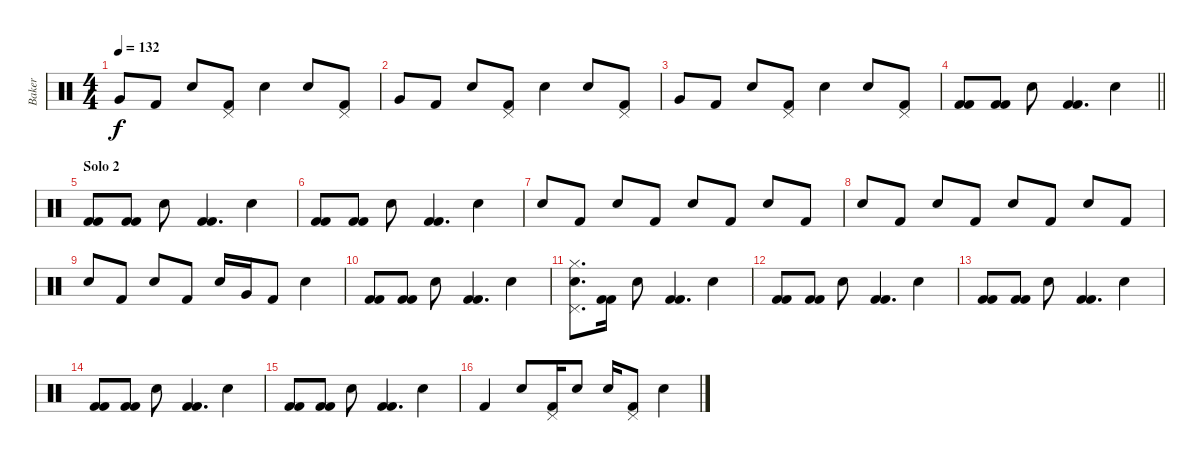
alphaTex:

\track ("Baker" "Baker") {instrument percussion}
\staff {score}
\articulation defaults
\ts (4 4)
\tempo 132
\clef neutral
\ks c "Very Low Tom (hit)".8{dy f} "Kick (hit) 2".8 "Snare (hit) 2".8
("Pedal Hi-Hat (hit)" "Kick (hit) 2").8 "Snare (hit) 2".4 "Snare (hit) 2".8 ("Pedal Hi-Hat (hit)" "Kick (hit) 2").8 |
"Very Low Tom (hit)".8 "Kick (hit) 2".8 "Snare (hit) 2".8 ("Pedal Hi-Hat (hit)" "Kick (hit) 2").8 "Snare (hit) 2".4 "Snare (hit) 2".8 ("Pedal Hi-Hat (hit)" "Kick (hit) 2").8 |
"Very Low Tom (hit)".8 "Kick (hit) 2".8 "Snare (hit) 2".8 ("Pedal Hi-Hat (hit)" "Kick (hit) 2").8 "Snare (hit) 2".4 "Snare (hit) 2".8 ("Pedal Hi-Hat (hit)" "Kick (hit) 2").8 |
\barLineRight lightlight
("Kick (hit) 2" "Kick (hit) 2").8 ("Kick (hit) 2" "Kick (hit) 2").8 "Snare (hit) 2".8 ("Kick (hit) 2" "Kick (hit) 2").4{d} "Snare (hit) 2".4 |
\section ("" "Solo 2")
("Kick (hit) 2" "Kick (hit) 2").8 ("Kick (hit) 2" "Kick (hit) 2").8 "Snare (hit) 2".8 ("Kick (hit) 2" "Kick (hit) 2").4{d} "Snare (hit) 2".4 |
("Kick (hit) 2" "Kick (hit) 2").8 ("Kick (hit) 2" "Kick (hit) 2").8 "Snare (hit) 2".8 ("Kick (hit) 2" "Kick (hit) 2").4{d} "Snare (hit) 2".4 |
"Snare (hit) 2".8 "Kick (hit) 2".8 "Snare (hit) 2".8 "Kick (hit) 2".8 "Snare (hit) 2".8 "Kick (hit) 2".8 "Snare (hit) 2".8 "Kick (hit) 2".8 |
"Snare (hit) 2".8 "Kick (hit) 2".8 "Snare (hit) 2".8 "Kick (hit) 2".8 "Snare (hit) 2".8 "Kick (hit) 2".8 "Snare (hit) 2".8 "Kick (hit) 2".8 |
"Snare (hit) 2".8 "Kick (hit) 2".8 "Snare (hit) 2".8 "Kick (hit) 2".8 "Electric Snare (hit)".16 "Very Low Tom (hit)".16 "Kick (hit) 2".8 "Snare (hit) 2".4 |
("Kick (hit) 2" "Kick (hit) 2").8 ("Kick (hit) 2" "Kick (hit) 2").8 "Snare (hit) 2".8 ("Kick (hit) 2" "Kick (hit) 2").4{d} "Snare (hit) 2".4 |
("Snare (hit) 2" "Hi-Hat (closed)" "Pedal Hi-Hat (hit)").8{d} ("Kick (hit) 2" "Kick (hit) 2").16 "Snare (hit) 2".8 ("Kick (hit) 2" "Kick (hit) 2").4{d} "Snare (hit) 2".4 |
("Kick (hit) 2" "Kick (hit) 2").8 ("Kick (hit) 2" "Kick (hit) 2").8 "Snare (hit) 2".8 ("Kick (hit) 2" "Kick (hit) 2").4{d} "Snare (hit) 2".4 |
("Kick (hit) 2" "Kick (hit) 2").8 ("Kick (hit) 2" "Kick (hit) 2").8 "Snare (hit) 2".8 ("Kick (hit) 2" "Kick (hit) 2").4{d} "Snare (hit) 2".4 |
("Kick (hit) 2" "Kick (hit) 2").8 ("Kick (hit) 2" "Kick (hit) 2").8 "Snare (hit) 2".8 ("Kick (hit) 2" "Kick (hit) 2").4{d} "Snare (hit) 2".4 |
("Kick (hit) 2" "Kick (hit) 2").8 ("Kick (hit) 2" "Kick (hit) 2").8 "Snare (hit) 2".8 ("Kick (hit) 2" "Kick (hit) 2").4{d} "Snare (hit) 2".4 |
"Kick (hit) 2".4 "Snare (hit) 2".8 ("Pedal Hi-Hat (hit)" "Kick (hit) 2").16 "Snare (hit) 2".8 "Snare (hit) 2".16 ("Pedal Hi-Hat (hit)" "Kick (hit) 2").8 "Snare (hit) 2".4
